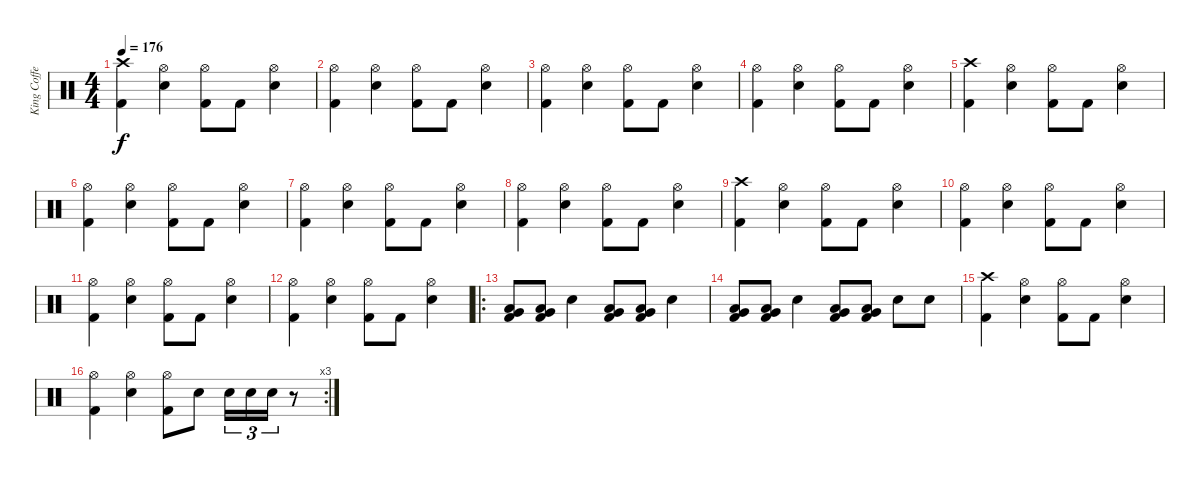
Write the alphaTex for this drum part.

\track ("King Coffey" "King Coffe") {instrument percussion}
\staff {score}
\articulation defaults
\ts (4 4)
\tempo 176
\clef neutral
\ks c
("Crash high (hit)" "Kick (hit) 2").4{dy f} ("Hi-Hat (open)" "Snare (hit) 2").4 ("Hi-Hat (open)" "Kick (hit) 2").8 "Kick (hit) 2".8 ("Hi-Hat (open)" "Snare (hit) 2").4 |
("Hi-Hat (open)" "Kick (hit) 2").4 ("Hi-Hat (open)" "Snare (hit) 2").4 ("Hi-Hat (open)" "Kick (hit) 2").8 "Kick (hit) 2".8 ("Hi-Hat (open)" "Snare (hit) 2").4 |
("Hi-Hat (open)" "Kick (hit) 2").4 ("Hi-Hat (open)" "Snare (hit) 2").4 ("Hi-Hat (open)" "Kick (hit) 2").8 "Kick (hit) 2".8 ("Hi-Hat (open)" "Snare (hit) 2").4 |
("Hi-Hat (open)" "Kick (hit) 2").4 ("Hi-Hat (open)" "Snare (hit) 2").4 ("Hi-Hat (open)" "Kick (hit) 2").8 "Kick (hit) 2".8 ("Hi-Hat (open)" "Snare (hit) 2").4 |
("Crash high (hit)" "Kick (hit) 2").4 ("Hi-Hat (open)" "Snare (hit) 2").4 ("Hi-Hat (open)" "Kick (hit) 2").8 "Kick (hit) 2".8 ("Hi-Hat (open)" "Snare (hit) 2").4 |
("Hi-Hat (open)" "Kick (hit) 2").4 ("Hi-Hat (open)" "Snare (hit) 2").4 ("Hi-Hat (open)" "Kick (hit) 2").8 "Kick (hit) 2".8 ("Hi-Hat (open)" "Snare (hit) 2").4 |
("Hi-Hat (open)" "Kick (hit) 2").4 ("Hi-Hat (open)" "Snare (hit) 2").4 ("Hi-Hat (open)" "Kick (hit) 2").8 "Kick (hit) 2".8 ("Hi-Hat (open)" "Snare (hit) 2").4 |
("Hi-Hat (open)" "Kick (hit) 2").4 ("Hi-Hat (open)" "Snare (hit) 2").4 ("Hi-Hat (open)" "Kick (hit) 2").8 "Kick (hit) 2".8 ("Hi-Hat (open)" "Snare (hit) 2").4 |
("Crash high (hit)" "Kick (hit) 2").4 ("Hi-Hat (open)" "Snare (hit) 2").4 ("Hi-Hat (open)" "Kick (hit) 2").8 "Kick (hit) 2".8 ("Hi-Hat (open)" "Snare (hit) 2").4 |
("Hi-Hat (open)" "Kick (hit) 2").4 ("Hi-Hat (open)" "Snare (hit) 2").4 ("Hi-Hat (open)" "Kick (hit) 2").8 "Kick (hit) 2".8 ("Hi-Hat (open)" "Snare (hit) 2").4 |
("Hi-Hat (open)" "Kick (hit) 2").4 ("Hi-Hat (open)" "Snare (hit) 2").4 ("Hi-Hat (open)" "Kick (hit) 2").8 "Kick (hit) 2".8 ("Hi-Hat (open)" "Snare (hit) 2").4 |
("Hi-Hat (open)" "Kick (hit) 2").4 ("Hi-Hat (open)" "Snare (hit) 2").4 ("Hi-Hat (open)" "Kick (hit) 2").8 "Kick (hit) 2".8 ("Hi-Hat (open)" "Snare (hit) 2").4 |
\ro
("Very Low Tom (hit)" "Low Tom (hit)" "Kick (hit) 2").8 ("Very Low Tom (hit)" "Low Tom (hit)" "Kick (hit) 2").8 "Snare (hit) 2".4 ("Very Low Tom (hit)" "Low Tom (hit)" "Kick (hit) 2").8 ("Very Low Tom (hit)" "Low Tom (hit)" "Kick (hit) 2").8 "Snare (hit) 2".4 |
("Very Low Tom (hit)" "Low Tom (hit)" "Kick (hit) 2").8 ("Very Low Tom (hit)" "Low Tom (hit)" "Kick (hit) 2").8 "Snare (hit) 2".4 ("Very Low Tom (hit)" "Low Tom (hit)" "Kick (hit) 2").8 ("Very Low Tom (hit)" "Low Tom (hit)" "Kick (hit) 2").8 "Snare (hit) 2".8 "Snare (hit) 2".8 |
("Crash high (hit)" "Kick (hit) 2").4 ("Hi-Hat (open)" "Snare (hit) 2").4 ("Hi-Hat (open)" "Kick (hit) 2").8 "Kick (hit) 2".8 ("Hi-Hat (open)" "Snare (hit) 2").4 |
\rc 3
("Hi-Hat (open)" "Kick (hit) 2").4 ("Hi-Hat (open)" "Snare (hit) 2").4 ("Hi-Hat (open)" "Kick (hit) 2").8 "Snare (hit) 2".8 "Snare (hit) 2".16{tu (3 2)} "Snare (hit) 2".16{tu (3 2)} "Snare (hit) 2".16{tu (3 2)} r.8
